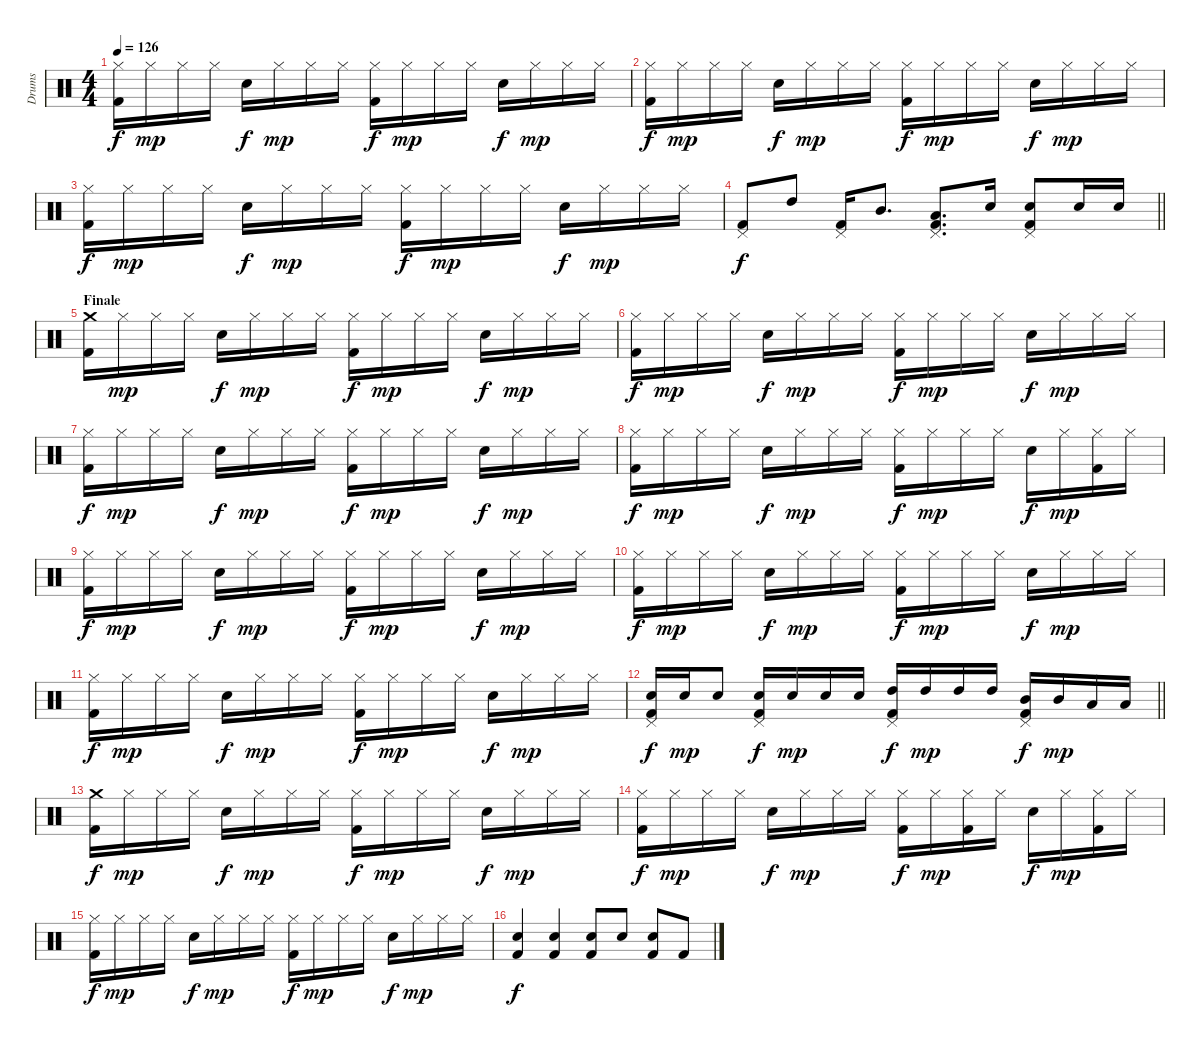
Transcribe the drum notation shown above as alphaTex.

\track ("Drums" "Drums") {instrument percussion}
\staff {score}
\articulation defaults
\ts (4 4)
\tempo 126
\clef neutral
\ks c
("Hi-Hat (closed)" "Kick (hit) 2").16{dy f} "Hi-Hat (closed)".16{dy mp} "Hi-Hat (closed)".16 "Hi-Hat (closed)".16 "Snare (hit) 2".16{dy f} "Hi-Hat (closed)".16{dy mp} "Hi-Hat (closed)".16 "Hi-Hat (closed)".16 ("Hi-Hat (closed)" "Kick (hit) 2").16{dy f} "Hi-Hat (closed)".16{dy mp} "Hi-Hat (closed)".16 "Hi-Hat (closed)".16 "Snare (hit) 2".16{dy f} "Hi-Hat (closed)".16{dy mp} "Hi-Hat (closed)".16 "Hi-Hat (closed)".16 |
("Hi-Hat (closed)" "Kick (hit) 2").16{dy f} "Hi-Hat (closed)".16{dy mp} "Hi-Hat (closed)".16 "Hi-Hat (closed)".16 "Snare (hit) 2".16{dy f} "Hi-Hat (closed)".16{dy mp} "Hi-Hat (closed)".16 "Hi-Hat (closed)".16 ("Hi-Hat (closed)" "Kick (hit) 2").16{dy f} "Hi-Hat (closed)".16{dy mp} "Hi-Hat (closed)".16 "Hi-Hat (closed)".16 "Snare (hit) 2".16{dy f} "Hi-Hat (closed)".16{dy mp} "Hi-Hat (closed)".16 "Hi-Hat (closed)".16 |
("Hi-Hat (closed)" "Kick (hit) 2").16{dy f} "Hi-Hat (closed)".16{dy mp} "Hi-Hat (closed)".16 "Hi-Hat (closed)".16 "Snare (hit) 2".16{dy f} "Hi-Hat (closed)".16{dy mp} "Hi-Hat (closed)".16 "Hi-Hat (closed)".16 ("Hi-Hat (closed)" "Kick (hit) 2").16{dy f} "Hi-Hat (closed)".16{dy mp} "Hi-Hat (closed)".16 "Hi-Hat (closed)".16 "Snare (hit) 2".16{dy f} "Hi-Hat (closed)".16{dy mp} "Hi-Hat (closed)".16 "Hi-Hat (closed)".16 |
\barLineRight lightlight
("Pedal Hi-Hat (hit)" "Kick (hit) 2").8{dy f} "High Tom (hit)".8 ("Pedal Hi-Hat (hit)" "Kick (hit) 2").16 "Mid Tom (hit)".8{d} ("Pedal Hi-Hat (hit)" "Low Tom (hit)" "Kick (hit) 2").8{d} "Snare (hit) 2".16 ("Pedal Hi-Hat (hit)" "Snare (hit) 2" "Kick (hit) 2").8 "Snare (hit) 2".16 "Snare (hit) 2".16 |
\section ("" "Finale")
("Crash medium (hit)" "Kick (hit) 2").16 "Hi-Hat (closed)".16{dy mp} "Hi-Hat (closed)".16 "Hi-Hat (closed)".16 "Snare (hit) 2".16{dy f} "Hi-Hat (closed)".16{dy mp} "Hi-Hat (closed)".16 "Hi-Hat (closed)".16 ("Hi-Hat (closed)" "Kick (hit) 2").16{dy f} "Hi-Hat (closed)".16{dy mp} "Hi-Hat (closed)".16 "Hi-Hat (closed)".16 "Snare (hit) 2".16{dy f} "Hi-Hat (closed)".16{dy mp} "Hi-Hat (closed)".16 "Hi-Hat (closed)".16 |
("Hi-Hat (closed)" "Kick (hit) 2").16{dy f} "Hi-Hat (closed)".16{dy mp} "Hi-Hat (closed)".16 "Hi-Hat (closed)".16 "Snare (hit) 2".16{dy f} "Hi-Hat (closed)".16{dy mp} "Hi-Hat (closed)".16 "Hi-Hat (closed)".16 ("Hi-Hat (closed)" "Kick (hit) 2").16{dy f} "Hi-Hat (closed)".16{dy mp} "Hi-Hat (closed)".16 "Hi-Hat (closed)".16 "Snare (hit) 2".16{dy f} "Hi-Hat (closed)".16{dy mp} "Hi-Hat (closed)".16 "Hi-Hat (closed)".16 |
("Hi-Hat (closed)" "Kick (hit) 2").16{dy f} "Hi-Hat (closed)".16{dy mp} "Hi-Hat (closed)".16 "Hi-Hat (closed)".16 "Snare (hit) 2".16{dy f} "Hi-Hat (closed)".16{dy mp} "Hi-Hat (closed)".16 "Hi-Hat (closed)".16 ("Hi-Hat (closed)" "Kick (hit) 2").16{dy f} "Hi-Hat (closed)".16{dy mp} "Hi-Hat (closed)".16 "Hi-Hat (closed)".16 "Snare (hit) 2".16{dy f} "Hi-Hat (closed)".16{dy mp} "Hi-Hat (closed)".16 "Hi-Hat (closed)".16 |
("Hi-Hat (closed)" "Kick (hit) 2").16{dy f} "Hi-Hat (closed)".16{dy mp} "Hi-Hat (closed)".16 "Hi-Hat (closed)".16 "Snare (hit) 2".16{dy f} "Hi-Hat (closed)".16{dy mp} "Hi-Hat (closed)".16 "Hi-Hat (closed)".16 ("Hi-Hat (closed)" "Kick (hit) 2").16{dy f} "Hi-Hat (closed)".16{dy mp} "Hi-Hat (closed)".16 "Hi-Hat (closed)".16 "Snare (hit) 2".16{dy f} "Hi-Hat (closed)".16{dy mp} ("Hi-Hat (closed)" "Kick (hit) 2").16 "Hi-Hat (closed)".16 |
("Hi-Hat (closed)" "Kick (hit) 2").16{dy f} "Hi-Hat (closed)".16{dy mp} "Hi-Hat (closed)".16 "Hi-Hat (closed)".16 "Snare (hit) 2".16{dy f} "Hi-Hat (closed)".16{dy mp} "Hi-Hat (closed)".16 "Hi-Hat (closed)".16 ("Hi-Hat (closed)" "Kick (hit) 2").16{dy f} "Hi-Hat (closed)".16{dy mp} "Hi-Hat (closed)".16 "Hi-Hat (closed)".16 "Snare (hit) 2".16{dy f} "Hi-Hat (closed)".16{dy mp} "Hi-Hat (closed)".16 "Hi-Hat (closed)".16 |
("Hi-Hat (closed)" "Kick (hit) 2").16{dy f} "Hi-Hat (closed)".16{dy mp} "Hi-Hat (closed)".16 "Hi-Hat (closed)".16 "Snare (hit) 2".16{dy f} "Hi-Hat (closed)".16{dy mp} "Hi-Hat (closed)".16 "Hi-Hat (closed)".16 ("Hi-Hat (closed)" "Kick (hit) 2").16{dy f} "Hi-Hat (closed)".16{dy mp} "Hi-Hat (closed)".16 "Hi-Hat (closed)".16 "Snare (hit) 2".16{dy f} "Hi-Hat (closed)".16{dy mp} "Hi-Hat (closed)".16 "Hi-Hat (closed)".16 |
("Hi-Hat (closed)" "Kick (hit) 2").16{dy f} "Hi-Hat (closed)".16{dy mp} "Hi-Hat (closed)".16 "Hi-Hat (closed)".16 "Snare (hit) 2".16{dy f} "Hi-Hat (closed)".16{dy mp} "Hi-Hat (closed)".16 "Hi-Hat (closed)".16 ("Hi-Hat (closed)" "Kick (hit) 2").16{dy f} "Hi-Hat (closed)".16{dy mp} "Hi-Hat (closed)".16 "Hi-Hat (closed)".16 "Snare (hit) 2".16{dy f} "Hi-Hat (closed)".16{dy mp} "Hi-Hat (closed)".16 "Hi-Hat (closed)".16 |
\barLineRight lightlight
("Pedal Hi-Hat (hit)" "Snare (hit) 2" "Kick (hit) 2").16{dy f} "Snare (hit) 2".16{dy mp} "Snare (hit) 2".8 ("Pedal Hi-Hat (hit)" "Snare (hit) 2" "Kick (hit) 2").16{dy f} "Snare (hit) 2".16{dy mp} "Snare (hit) 2".16 "Snare (hit) 2".16 ("Pedal Hi-Hat (hit)" "High Tom (hit)" "Kick (hit) 2").16{dy f} "High Tom (hit)".16{dy mp} "High Tom (hit)".16 "High Tom (hit)".16 ("Pedal Hi-Hat (hit)" "Mid Tom (hit)" "Kick (hit) 2").16{dy f} "Mid Tom (hit)".16{dy mp} "Low Tom (hit)".16 "Low Tom (hit)".16 |
("Crash medium (hit)" "Kick (hit) 2").16{dy f} "Hi-Hat (closed)".16{dy mp} "Hi-Hat (closed)".16 "Hi-Hat (closed)".16 "Snare (hit) 2".16{dy f} "Hi-Hat (closed)".16{dy mp} "Hi-Hat (closed)".16 "Hi-Hat (closed)".16 ("Hi-Hat (closed)" "Kick (hit) 2").16{dy f} "Hi-Hat (closed)".16{dy mp} "Hi-Hat (closed)".16 "Hi-Hat (closed)".16 "Snare (hit) 2".16{dy f} "Hi-Hat (closed)".16{dy mp} "Hi-Hat (closed)".16 "Hi-Hat (closed)".16 |
("Hi-Hat (closed)" "Kick (hit) 2").16{dy f} "Hi-Hat (closed)".16{dy mp} "Hi-Hat (closed)".16 "Hi-Hat (closed)".16 "Snare (hit) 2".16{dy f} "Hi-Hat (closed)".16{dy mp} "Hi-Hat (closed)".16 "Hi-Hat (closed)".16 ("Hi-Hat (closed)" "Kick (hit) 2").16{dy f} "Hi-Hat (closed)".16{dy mp} ("Hi-Hat (closed)" "Kick (hit) 2").16 "Hi-Hat (closed)".16 "Snare (hit) 2".16{dy f} "Hi-Hat (closed)".16{dy mp} ("Hi-Hat (closed)" "Kick (hit) 2").16 "Hi-Hat (closed)".16 |
("Hi-Hat (closed)" "Kick (hit) 2").16{dy f} "Hi-Hat (closed)".16{dy mp} "Hi-Hat (closed)".16 "Hi-Hat (closed)".16 "Snare (hit) 2".16{dy f} "Hi-Hat (closed)".16{dy mp} "Hi-Hat (closed)".16 "Hi-Hat (closed)".16 ("Hi-Hat (closed)" "Kick (hit) 2").16{dy f} "Hi-Hat (closed)".16{dy mp} "Hi-Hat (closed)".16 "Hi-Hat (closed)".16 "Snare (hit) 2".16{dy f} "Hi-Hat (closed)".16{dy mp} "Hi-Hat (closed)".16 "Hi-Hat (closed)".16 |
("Snare (hit) 2" "Kick (hit) 2").4{dy f} ("Snare (hit) 2" "Kick (hit) 2").4 ("Snare (hit) 2" "Kick (hit) 2").8 "Snare (hit) 2".8 ("Snare (hit) 2" "Kick (hit) 2").8 "Kick (hit) 2".8
